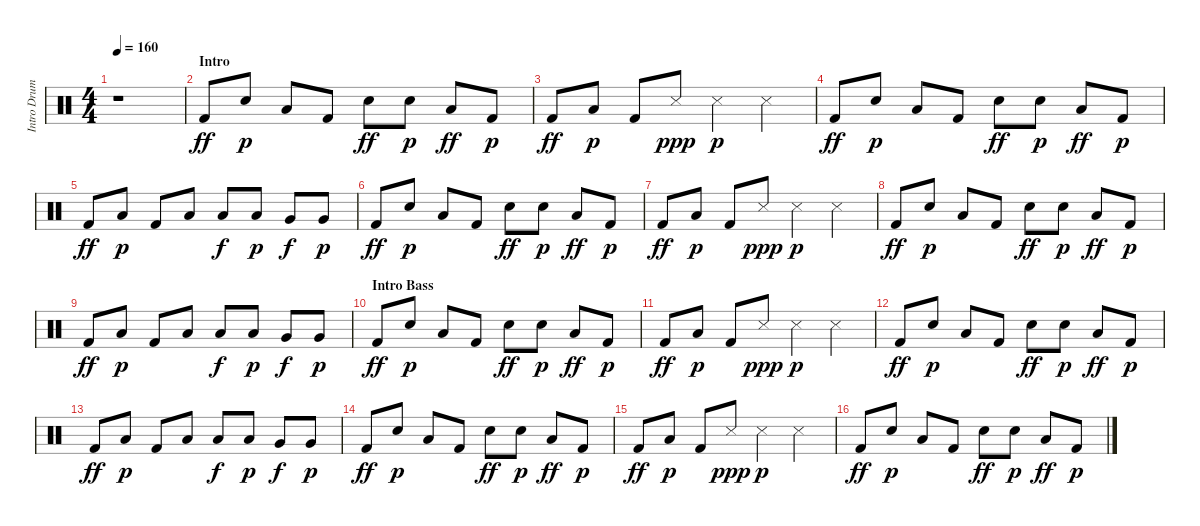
\track ("Intro Drums" "Intro Drum") {instrument percussion}
\staff {score}
\articulation defaults
\ts (4 4)
\tempo 160
\clef neutral
\ks aminor
r.1{dy ff} |
\section ("" "Intro")
"Kick (hit) 2".8 "Snare (hit) 2".8{dy p} "Low Floor Tom (hit)".8 "Kick (hit) 2".8 "Snare (hit) 2".8{dy ff} "Snare (hit) 2".8{dy p} "Low Floor Tom (hit)".8{dy ff} "Kick (hit) 2".8{dy p} |
"Kick (hit) 2".8{dy ff} "Low Floor Tom (hit)".8{dy p} "Kick (hit) 2".8 "Snare (side stick) 3".8{dy ppp} "Snare (side stick) 3".4{dy p} "Snare (side stick) 3".4 |
"Kick (hit) 2".8{dy ff} "Snare (hit) 2".8{dy p} "Low Floor Tom (hit)".8 "Kick (hit) 2".8 "Snare (hit) 2".8{dy ff} "Snare (hit) 2".8{dy p} "Low Floor Tom (hit)".8{dy ff} "Kick (hit) 2".8{dy p} |
"Kick (hit) 2".8{dy ff} "Low Floor Tom (hit)".8{dy p} "Kick (hit) 2".8 "Low Floor Tom (hit)".8 "Low Tom (hit)".8{dy f} "Low Tom (hit)".8{dy p} "Very Low Tom (hit)".8{dy f} "Very Low Tom (hit)".8{dy p} |
"Kick (hit) 2".8{dy ff} "Snare (hit) 2".8{dy p} "Low Floor Tom (hit)".8 "Kick (hit) 2".8 "Snare (hit) 2".8{dy ff} "Snare (hit) 2".8{dy p} "Low Floor Tom (hit)".8{dy ff} "Kick (hit) 2".8{dy p} |
"Kick (hit) 2".8{dy ff} "Low Floor Tom (hit)".8{dy p} "Kick (hit) 2".8 "Snare (side stick) 3".8{dy ppp} "Snare (side stick) 3".4{dy p} "Snare (side stick) 3".4 |
"Kick (hit) 2".8{dy ff} "Snare (hit) 2".8{dy p} "Low Floor Tom (hit)".8 "Kick (hit) 2".8 "Snare (hit) 2".8{dy ff} "Snare (hit) 2".8{dy p} "Low Floor Tom (hit)".8{dy ff} "Kick (hit) 2".8{dy p} |
"Kick (hit) 2".8{dy ff} "Low Floor Tom (hit)".8{dy p} "Kick (hit) 2".8 "Low Floor Tom (hit)".8 "Low Tom (hit)".8{dy f} "Low Tom (hit)".8{dy p} "Very Low Tom (hit)".8{dy f} "Very Low Tom (hit)".8{dy p} |
\section ("" "Intro Bass")
"Kick (hit) 2".8{dy ff} "Snare (hit) 2".8{dy p} "Low Floor Tom (hit)".8 "Kick (hit) 2".8 "Snare (hit) 2".8{dy ff} "Snare (hit) 2".8{dy p} "Low Floor Tom (hit)".8{dy ff} "Kick (hit) 2".8{dy p} |
"Kick (hit) 2".8{dy ff} "Low Floor Tom (hit)".8{dy p} "Kick (hit) 2".8 "Snare (side stick) 3".8{dy ppp} "Snare (side stick) 3".4{dy p} "Snare (side stick) 3".4 |
"Kick (hit) 2".8{dy ff} "Snare (hit) 2".8{dy p} "Low Floor Tom (hit)".8 "Kick (hit) 2".8 "Snare (hit) 2".8{dy ff} "Snare (hit) 2".8{dy p} "Low Floor Tom (hit)".8{dy ff} "Kick (hit) 2".8{dy p} |
"Kick (hit) 2".8{dy ff} "Low Floor Tom (hit)".8{dy p} "Kick (hit) 2".8 "Low Floor Tom (hit)".8 "Low Tom (hit)".8{dy f} "Low Tom (hit)".8{dy p} "Very Low Tom (hit)".8{dy f} "Very Low Tom (hit)".8{dy p} |
"Kick (hit) 2".8{dy ff} "Snare (hit) 2".8{dy p} "Low Floor Tom (hit)".8 "Kick (hit) 2".8 "Snare (hit) 2".8{dy ff} "Snare (hit) 2".8{dy p} "Low Floor Tom (hit)".8{dy ff} "Kick (hit) 2".8{dy p} |
"Kick (hit) 2".8{dy ff} "Low Floor Tom (hit)".8{dy p} "Kick (hit) 2".8 "Snare (side stick) 3".8{dy ppp} "Snare (side stick) 3".4{dy p} "Snare (side stick) 3".4 |
"Kick (hit) 2".8{dy ff} "Snare (hit) 2".8{dy p} "Low Floor Tom (hit)".8 "Kick (hit) 2".8 "Snare (hit) 2".8{dy ff} "Snare (hit) 2".8{dy p} "Low Floor Tom (hit)".8{dy ff} "Kick (hit) 2".8{dy p}
